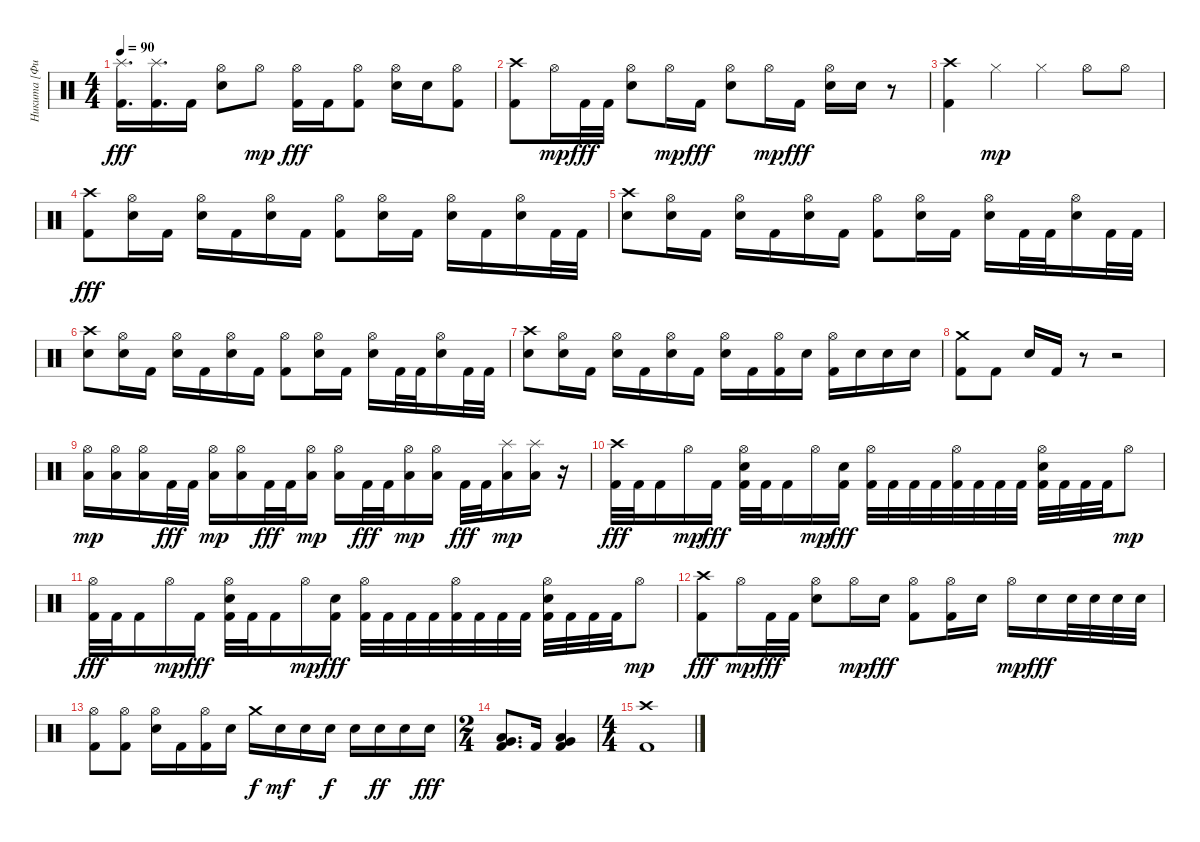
\track ("Никита [Фил]" "Никита [Фи") {instrument percussion}
\staff {score}
\articulation defaults
\ts (4 4)
\tempo 90
\clef neutral
\ks c
("Splash (hit)" "Kick (hit) 2").16{d dy fff} ("Splash (hit)" "Kick (hit) 2").16{d} "Kick (hit) 2".16 ("Hi-Hat (open)" "Electric Snare (hit)").8 "Hi-Hat (open)".8{dy mp} ("Hi-Hat (open)" "Kick (hit) 2").16{dy fff} "Kick (hit) 2".16 ("Hi-Hat (open)" "Kick (hit) 2").8 ("Hi-Hat (open)" "Electric Snare (hit)").16 "Electric Snare (hit)".16 ("Hi-Hat (open)" "Kick (hit) 2").8 |
("Crash high (hit)" "Kick (hit) 2").8 "Hi-Hat (open)".16{dy mp} "Kick (hit) 2".32{dy fff} "Kick (hit) 2".32 ("Hi-Hat (open)" "Electric Snare (hit)").8 "Hi-Hat (open)".16{dy mp} "Kick (hit) 2".16{dy fff} ("Hi-Hat (open)" "Electric Snare (hit)").8 "Hi-Hat (open)".16{dy mp} "Kick (hit) 2".16{dy fff} ("Hi-Hat (open)" "Electric Snare (hit)").16 "Electric Snare (hit)".16 r.8 |
("Crash high (hit)" "Kick (hit) 2").4 "Hi-Hat (closed)".4{dy mp} "Hi-Hat (closed)".4 "Hi-Hat (open)".8 "Hi-Hat (open)".8 |
("Crash high (hit)" "Kick (hit) 2").8{dy fff} ("Hi-Hat (open)" "Electric Snare (hit)").16 "Kick (hit) 2".16 ("Hi-Hat (open)" "Electric Snare (hit)").16 "Kick (hit) 2".16 ("Hi-Hat (open)" "Electric Snare (hit)").16 "Kick (hit) 2".16 ("Hi-Hat (open)" "Kick (hit) 2").8 ("Hi-Hat (open)" "Electric Snare (hit)").16 "Kick (hit) 2".16 ("Hi-Hat (open)" "Electric Snare (hit)").16 "Kick (hit) 2".16 ("Hi-Hat (open)" "Electric Snare (hit)").16 "Kick (hit) 2".32 "Kick (hit) 2".32 |
("Crash high (hit)" "Electric Snare (hit)").8 ("Hi-Hat (open)" "Electric Snare (hit)").16 "Kick (hit) 2".16 ("Hi-Hat (open)" "Electric Snare (hit)").16 "Kick (hit) 2".16 ("Hi-Hat (open)" "Electric Snare (hit)").16 "Kick (hit) 2".16 ("Hi-Hat (open)" "Kick (hit) 2").8 ("Hi-Hat (open)" "Electric Snare (hit)").16 "Kick (hit) 2".16 ("Hi-Hat (open)" "Electric Snare (hit)").16 "Kick (hit) 2".32 "Kick (hit) 2".32 ("Hi-Hat (open)" "Electric Snare (hit)").16 "Kick (hit) 2".32 "Kick (hit) 2".32 |
("Crash high (hit)" "Electric Snare (hit)").8 ("Hi-Hat (open)" "Electric Snare (hit)").16 "Kick (hit) 2".16 ("Hi-Hat (open)" "Electric Snare (hit)").16 "Kick (hit) 2".16 ("Hi-Hat (open)" "Electric Snare (hit)").16 "Kick (hit) 2".16 ("Hi-Hat (open)" "Kick (hit) 2").8 ("Hi-Hat (open)" "Electric Snare (hit)").16 "Kick (hit) 2".16 ("Hi-Hat (open)" "Electric Snare (hit)").16 "Kick (hit) 2".32 "Kick (hit) 2".32 ("Hi-Hat (open)" "Electric Snare (hit)").16 "Kick (hit) 2".32 "Kick (hit) 2".32 |
("Crash high (hit)" "Electric Snare (hit)").8 ("Hi-Hat (open)" "Electric Snare (hit)").16 "Kick (hit) 2".16 ("Hi-Hat (open)" "Electric Snare (hit)").16 "Kick (hit) 2".16 ("Hi-Hat (open)" "Electric Snare (hit)").16 "Kick (hit) 2".16 ("Hi-Hat (open)" "Electric Snare (hit)").16 "Kick (hit) 2".16 ("Hi-Hat (open)" "Kick (hit) 2").16 "Electric Snare (hit)".16 ("Hi-Hat (open)" "Kick (hit) 2").16 "Electric Snare (hit)".16 "Electric Snare (hit)".16 "Electric Snare (hit)".16 |
("Crash medium (hit)" "Kick (hit) 2").8 "Kick (hit) 2".8 "Electric Snare (hit)".16 "Kick (hit) 2".16 r.8 r.2 |
("Hi-Hat (open)" "Low Floor Tom (hit)").16{dy mp} ("Hi-Hat (open)" "Low Floor Tom (hit)").16 ("Hi-Hat (open)" "Low Floor Tom (hit)").16 "Kick (hit) 2".32{dy fff} "Kick (hit) 2".32 ("Hi-Hat (open)" "Low Floor Tom (hit)").16{dy mp} ("Hi-Hat (open)" "Low Floor Tom (hit)").16 "Kick (hit) 2".32{dy fff} "Kick (hit) 2".32 ("Hi-Hat (open)" "Low Floor Tom (hit)").16{dy mp} ("Hi-Hat (open)" "Low Floor Tom (hit)").16 "Kick (hit) 2".32{dy fff} "Kick (hit) 2".32 ("Hi-Hat (open)" "Low Floor Tom (hit)").16{dy mp} ("Hi-Hat (open)" "Low Floor Tom (hit)").16 "Kick (hit) 2".32{dy fff} "Kick (hit) 2".32 ("Splash (hit)" "Low Floor Tom (hit)").16{dy mp} ("Splash (hit)" "Low Floor Tom (hit)").16 r.16 |
("Crash high (hit)" "Kick (hit) 2").32{dy fff} "Kick (hit) 2".32 "Kick (hit) 2".16 "Hi-Hat (open)".16{dy mp} "Kick (hit) 2".16{dy fff} ("Hi-Hat (open)" "Electric Snare (hit)" "Kick (hit) 2").32 "Kick (hit) 2".32 "Kick (hit) 2".16 "Hi-Hat (open)".16{dy mp} ("Electric Snare (hit)" "Kick (hit) 2").16{dy fff} ("Hi-Hat (open)" "Kick (hit) 2").32 "Kick (hit) 2".32 "Kick (hit) 2".32 "Kick (hit) 2".32 ("Hi-Hat (open)" "Kick (hit) 2").32 "Kick (hit) 2".32 "Kick (hit) 2".32 "Kick (hit) 2".32 ("Hi-Hat (open)" "Electric Snare (hit)" "Kick (hit) 2").32 "Kick (hit) 2".32 "Kick (hit) 2".32 "Kick (hit) 2".32 "Hi-Hat (open)".8{dy mp} |
("Hi-Hat (open)" "Kick (hit) 2").32{dy fff} "Kick (hit) 2".32 "Kick (hit) 2".16 "Hi-Hat (open)".16{dy mp} "Kick (hit) 2".16{dy fff} ("Hi-Hat (open)" "Electric Snare (hit)" "Kick (hit) 2").32 "Kick (hit) 2".32 "Kick (hit) 2".16 "Hi-Hat (open)".16{dy mp} ("Electric Snare (hit)" "Kick (hit) 2").16{dy fff} ("Hi-Hat (open)" "Kick (hit) 2").32 "Kick (hit) 2".32 "Kick (hit) 2".32 "Kick (hit) 2".32 ("Hi-Hat (open)" "Kick (hit) 2").32 "Kick (hit) 2".32 "Kick (hit) 2".32 "Kick (hit) 2".32 ("Hi-Hat (open)" "Electric Snare (hit)" "Kick (hit) 2").32 "Kick (hit) 2".32 "Kick (hit) 2".32 "Kick (hit) 2".32 "Hi-Hat (open)".8{dy mp} |
("Crash high (hit)" "Kick (hit) 2").8{dy fff} "Hi-Hat (open)".16{dy mp} "Kick (hit) 2".32{dy fff} "Kick (hit) 2".32 ("Hi-Hat (open)" "Electric Snare (hit)").8 "Hi-Hat (open)".16{dy mp} "Electric Snare (hit)".16{dy fff} ("Hi-Hat (open)" "Kick (hit) 2").8 ("Hi-Hat (open)" "Kick (hit) 2").16 "Electric Snare (hit)".16 "Hi-Hat (open)".16{dy mp} "Electric Snare (hit)".16{dy fff} "Electric Snare (hit)".32 "Electric Snare (hit)".32 "Electric Snare (hit)".32 "Electric Snare (hit)".32 |
("Hi-Hat (open)" "Kick (hit) 2").8 ("Hi-Hat (open)" "Kick (hit) 2").8 ("Hi-Hat (open)" "Electric Snare (hit)").16 "Kick (hit) 2".16 ("Hi-Hat (open)" "Kick (hit) 2").16 "Electric Snare (hit)".16 "Crash medium (hit)".16{dy f} "Electric Snare (hit)".16{dy mf} "Electric Snare (hit)".16 "Electric Snare (hit)".16{dy f} "Electric Snare (hit)".16 "Electric Snare (hit)".16{dy ff} "Electric Snare (hit)".16 "Electric Snare (hit)".16{dy fff} |
\ts (2 4)
("Very Low Tom (hit)" "Low Floor Tom (hit)" "Kick (hit) 2").8{d} "Kick (hit) 2".16 ("Very Low Tom (hit)" "Low Floor Tom (hit)" "Kick (hit) 2").4 |
\ts (4 4)
("Crash high (hit)" "Kick (hit) 2").1
